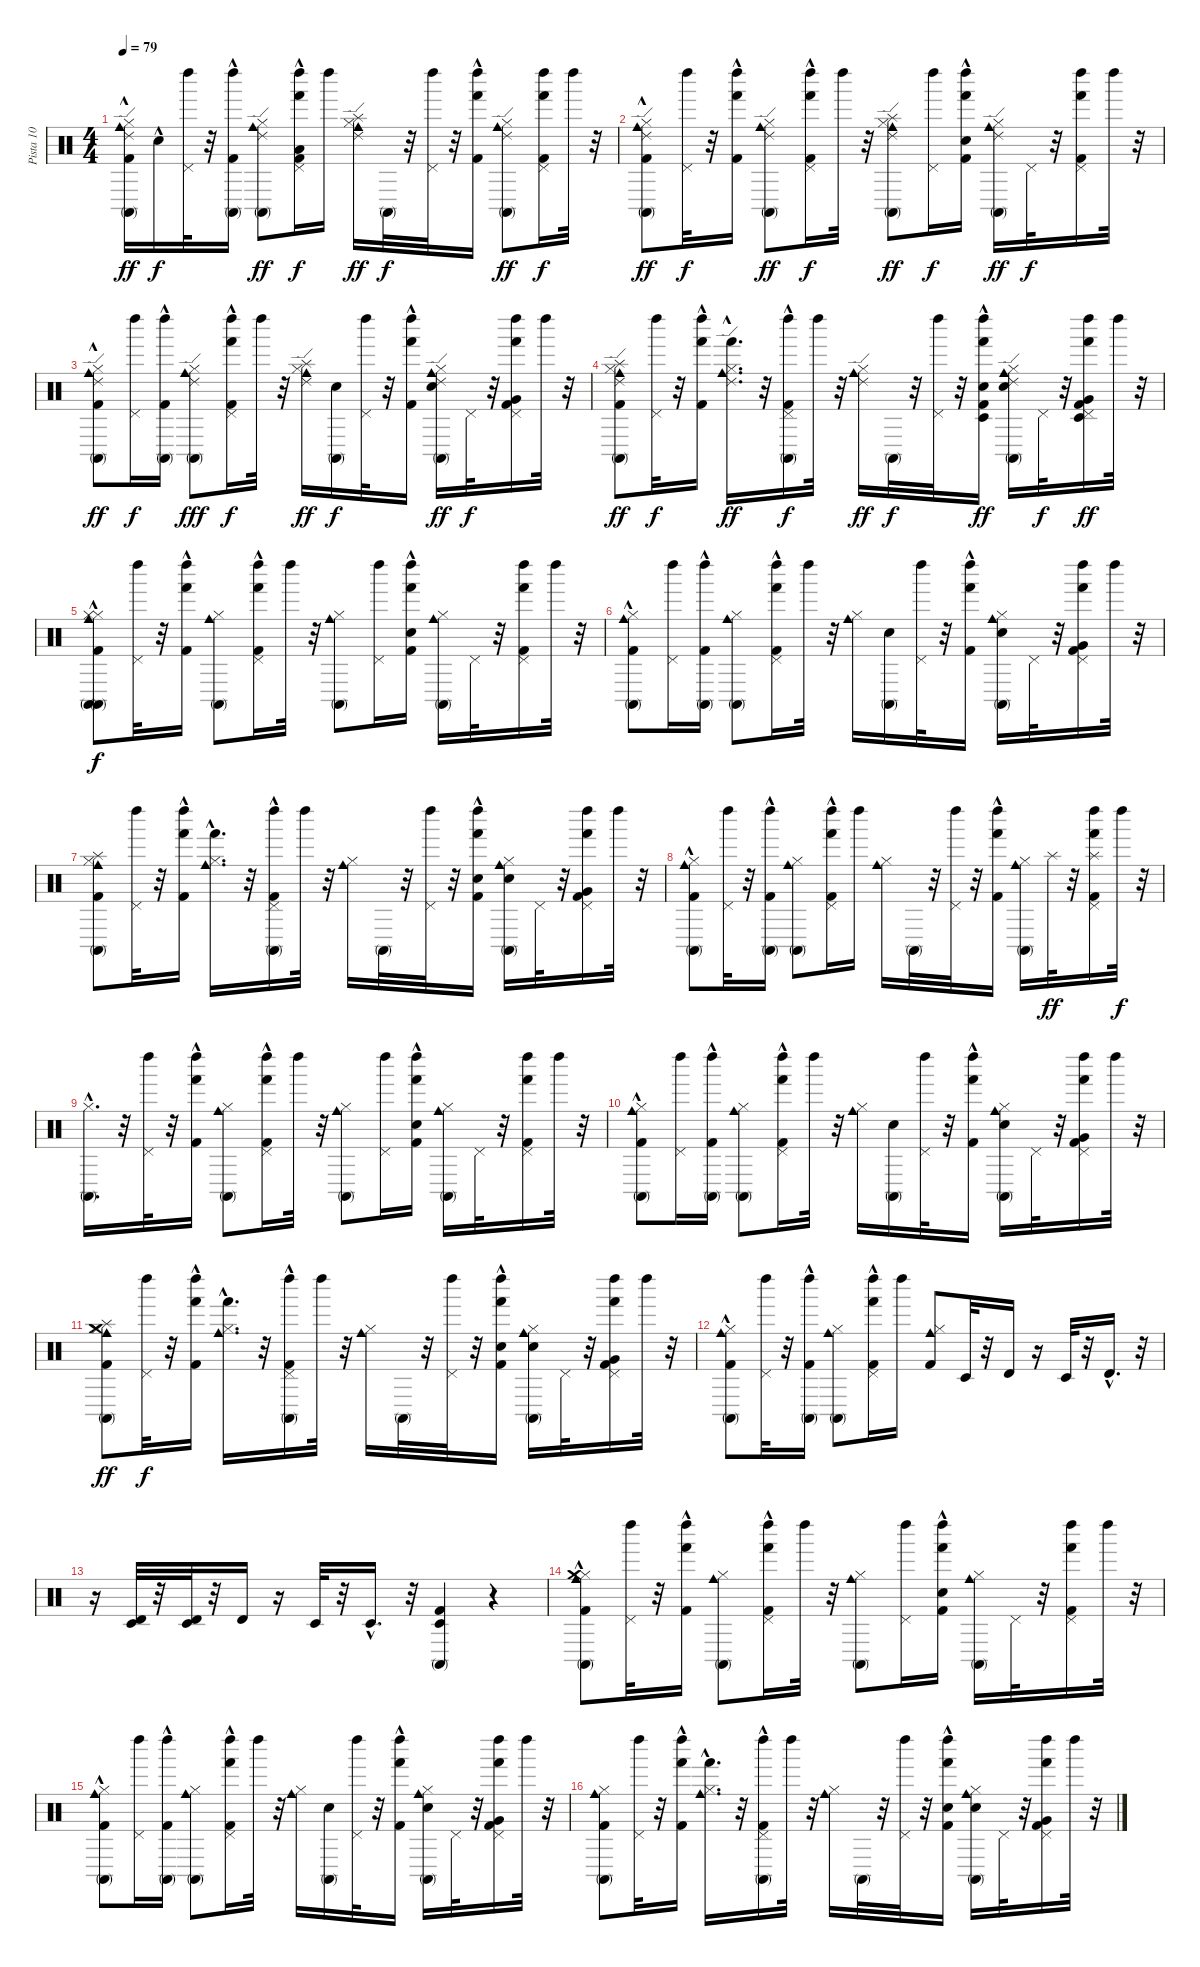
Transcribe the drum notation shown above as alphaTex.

\track ("Pista 10" "Pista 10") {instrument percussion}
\staff {score}
\articulation defaults
\ts (4 4)
\tempo 79
\clef neutral
\ks c
("Ride (edge) 2" "Cowbell medium (hit)" "Kick (hit) 2"{hac} "Hi-Hat (closed)" "Conga high (mute)").16{dy ff} "Snare (hit) 2"{hac}.16{dy f} ("Left Maraca (hit)" "Pedal Hi-Hat (hit)").32 r.32 ("Left Maraca (hit)" "Kick (hit) 2"{hac} "Conga high (mute)").16 ("Ride (edge) 2" "Cowbell medium (hit)" "Hi-Hat (closed)" "Conga high (mute)").8{dy ff} ("Low Floor Tom (hit)"{hac} "Left Maraca (hit)" "Kick (hit) 2"{hac} "Pedal Hi-Hat (hit)" "Hand (hit)").16{dy f} "Left Maraca (hit)".16 ("Ride (edge) 2" "Cowbell medium (hit)" "Hi-Hat (closed)" "Splash (hit)").16{dy ff} "Conga high (mute)".32{dy f} r.32 ("Left Maraca (hit)" "Pedal Hi-Hat (hit)").32 r.32 ("Left Maraca (hit)" "Kick (hit) 2"{hac} "Hand (hit)").16 ("Ride (edge) 2" "Cowbell medium (hit)" "Hi-Hat (closed)" "Conga high (mute)").8{dy ff} ("Left Maraca (hit)" "Kick (hit) 2" "Pedal Hi-Hat (hit)" "Hand (hit)").16{dy f} "Left Maraca (hit)".32 r.32 |
("Ride (edge) 2" "Cowbell medium (hit)" "Hi-Hat (closed)"{hac} "Conga high (mute)" "Kick (hit) 2"{hac}).8{dy ff} ("Left Maraca (hit)" "Pedal Hi-Hat (hit)").32{dy f} r.32 ("Left Maraca (hit)" "Hand (hit)" "Kick (hit) 2"{hac}).16 ("Ride (edge) 2" "Cowbell medium (hit)" "Hi-Hat (closed)" "Conga high (mute)").8{dy ff} ("Left Maraca (hit)" "Pedal Hi-Hat (hit)" "Hand (hit)" "Kick (hit) 2"{hac}).16{dy f} "Left Maraca (hit)".32 r.32 ("Ride (edge) 2" "Splash (hit)" "Cowbell medium (hit)" "Hi-Hat (closed)" "Conga high (mute)").8{dy ff} ("Left Maraca (hit)" "Pedal Hi-Hat (hit)").16{dy f} ("Left Maraca (hit)" "Hand (hit)" "Kick (hit) 2"{hac} "Snare (hit) 2").16 ("Ride (edge) 2" "Cowbell medium (hit)" "Hi-Hat (closed)" "Conga high (mute)").16{dy ff} "Pedal Hi-Hat (hit)".32{dy f} r.32 ("Left Maraca (hit)" "Pedal Hi-Hat (hit)" "Hand (hit)" "Kick (hit) 2").16 "Left Maraca (hit)".32 r.32 |
("Ride (edge) 2" "Cowbell medium (hit)" "Hi-Hat (closed)" "Conga high (mute)" "Kick (hit) 2"{hac}).8{dy ff} ("Left Maraca (hit)" "Pedal Hi-Hat (hit)").16{dy f} ("Left Maraca (hit)" "Conga high (mute)" "Kick (hit) 2"{hac}).16 ("Ride (edge) 2" "Cowbell medium (hit)" "Hi-Hat (closed)" "Conga high (mute)").8{dy fff} ("Left Maraca (hit)" "Pedal Hi-Hat (hit)" "Hand (hit)" "Kick (hit) 2"{hac}).16{dy f} "Left Maraca (hit)".32 r.32 ("Ride (edge) 2" "Splash (hit)" "Cowbell medium (hit)" "Hi-Hat (closed)").16{dy ff} ("Conga high (mute)" "Snare (hit) 2").16{dy f} ("Left Maraca (hit)" "Pedal Hi-Hat (hit)").32 r.32 ("Left Maraca (hit)" "Hand (hit)" "Kick (hit) 2"{hac}).16 ("Ride (edge) 2" "Cowbell medium (hit)" "Hi-Hat (closed)" "Conga high (mute)" "Snare (hit) 2").16{dy ff} "Pedal Hi-Hat (hit)".32{dy f} r.32 ("Left Maraca (hit)" "Pedal Hi-Hat (hit)" "Hand (hit)" "Kick (hit) 2" "Very Low Tom (hit)").16 "Left Maraca (hit)".32 r.32 |
("Ride (edge) 2" "Splash (hit)" "Cowbell medium (hit)" "Hi-Hat (closed)" "Conga high (mute)" "Kick (hit) 2").8{dy ff} ("Left Maraca (hit)" "Pedal Hi-Hat (hit)").32{dy f} r.32 ("Left Maraca (hit)" "Hand (hit)" "Kick (hit) 2"{hac}).16 ("Ride (edge) 2" "Cowbell medium (hit)"{hac} "Hi-Hat (closed)" "Hand (hit)").16{d dy ff} r.32 ("Left Maraca (hit)" "Pedal Hi-Hat (hit)" "Conga high (mute)" "Kick (hit) 2"{hac}).16{dy f} "Left Maraca (hit)".32 r.32 ("Ride (edge) 2" "Cowbell medium (hit)" "Hi-Hat (closed)").16{dy ff} "Conga high (mute)".32{dy f} r.32 ("Left Maraca (hit)" "Pedal Hi-Hat (hit)").32 r.32 ("Left Maraca (hit)" "Hand (hit)" "Kick (hit) 2"{hac} "Snare (hit) 2" "Timbale low (hit)").16{dy ff} ("Ride (edge) 2" "Cowbell medium (hit)" "Hi-Hat (closed)" "Conga high (mute)" "Snare (hit) 2").16 "Pedal Hi-Hat (hit)".32{dy f} r.32 ("Left Maraca (hit)" "Pedal Hi-Hat (hit)" "Hand (hit)" "Kick (hit) 2" "Very Low Tom (hit)" "Timbale low (hit)").16{dy ff} "Left Maraca (hit)".32 r.32 |
("Cowbell medium (hit)" "Hi-Hat (closed)"{hac} "Conga high (mute)" "Kick (hit) 2"{hac} "Hi-Hat (closed)"{hac} "Conga high (mute)").8{dy f} ("Left Maraca (hit)" "Pedal Hi-Hat (hit)").32 r.32 ("Left Maraca (hit)" "Kick (hit) 2"{hac} "Hand (hit)").16 ("Cowbell medium (hit)" "Hi-Hat (closed)" "Conga high (mute)").8 ("Left Maraca (hit)" "Kick (hit) 2"{hac} "Pedal Hi-Hat (hit)" "Hand (hit)").16 "Left Maraca (hit)".32 r.32 ("Cowbell medium (hit)" "Hi-Hat (closed)" "Conga high (mute)").8 ("Left Maraca (hit)" "Pedal Hi-Hat (hit)").16 ("Left Maraca (hit)" "Kick (hit) 2"{hac} "Hand (hit)" "Snare (hit) 2").16 ("Cowbell medium (hit)" "Hi-Hat (closed)" "Conga high (mute)").16 "Pedal Hi-Hat (hit)".32 r.32 ("Left Maraca (hit)" "Kick (hit) 2" "Pedal Hi-Hat (hit)" "Hand (hit)").16 "Left Maraca (hit)".32 r.32 |
("Cowbell medium (hit)" "Kick (hit) 2"{hac} "Hi-Hat (closed)" "Conga high (mute)").8 ("Left Maraca (hit)" "Pedal Hi-Hat (hit)").16 ("Left Maraca (hit)" "Kick (hit) 2"{hac} "Conga high (mute)").16 ("Cowbell medium (hit)" "Hi-Hat (closed)" "Conga high (mute)").8 ("Left Maraca (hit)" "Kick (hit) 2"{hac} "Pedal Hi-Hat (hit)" "Hand (hit)").16 "Left Maraca (hit)".32 r.32 ("Cowbell medium (hit)" "Hi-Hat (closed)").16 ("Conga high (mute)" "Snare (hit) 2").16 ("Left Maraca (hit)" "Pedal Hi-Hat (hit)").32 r.32 ("Left Maraca (hit)" "Kick (hit) 2"{hac} "Hand (hit)").16 ("Cowbell medium (hit)" "Hi-Hat (closed)" "Conga high (mute)" "Snare (hit) 2").16 "Pedal Hi-Hat (hit)".32 r.32 ("Left Maraca (hit)" "Kick (hit) 2" "Pedal Hi-Hat (hit)" "Hand (hit)" "Very Low Tom (hit)").16 "Left Maraca (hit)".32 r.32 |
("Cowbell medium (hit)" "Kick (hit) 2" "Hi-Hat (closed)" "Conga high (mute)" "Splash (hit)").8 ("Left Maraca (hit)" "Pedal Hi-Hat (hit)").32 r.32 ("Left Maraca (hit)" "Kick (hit) 2"{hac} "Hand (hit)").16 ("Cowbell medium (hit)"{hac} "Hi-Hat (closed)" "Hand (hit)").16{d} r.32 ("Left Maraca (hit)" "Kick (hit) 2"{hac} "Pedal Hi-Hat (hit)" "Conga high (mute)").16 "Left Maraca (hit)".32 r.32 ("Cowbell medium (hit)" "Hi-Hat (closed)").16 "Conga high (mute)".32 r.32 ("Left Maraca (hit)" "Pedal Hi-Hat (hit)").32 r.32 ("Left Maraca (hit)" "Kick (hit) 2"{hac} "Hand (hit)" "Snare (hit) 2").16 ("Cowbell medium (hit)" "Hi-Hat (closed)" "Conga high (mute)" "Snare (hit) 2").16 "Pedal Hi-Hat (hit)".32 r.32 ("Left Maraca (hit)" "Kick (hit) 2" "Pedal Hi-Hat (hit)" "Hand (hit)" "Very Low Tom (hit)").16 "Left Maraca (hit)".32 r.32 |
("Cowbell medium (hit)" "Kick (hit) 2"{hac} "Hi-Hat (closed)" "Conga high (mute)").8 ("Left Maraca (hit)" "Pedal Hi-Hat (hit)").32 r.32 ("Left Maraca (hit)" "Kick (hit) 2"{hac} "Conga high (mute)").16 ("Cowbell medium (hit)" "Hi-Hat (closed)" "Conga high (mute)").8 ("Left Maraca (hit)" "Kick (hit) 2"{hac} "Pedal Hi-Hat (hit)" "Hand (hit)").16 "Left Maraca (hit)".16 ("Cowbell medium (hit)" "Hi-Hat (closed)").16 "Conga high (mute)".32 r.32 ("Left Maraca (hit)" "Pedal Hi-Hat (hit)").32 r.32 ("Left Maraca (hit)" "Kick (hit) 2"{hac} "Hand (hit)").16 ("Cowbell medium (hit)" "Hi-Hat (closed)" "Conga high (mute)").16 "Splash (hit)".32{dy ff} r.32 ("Left Maraca (hit)" "Kick (hit) 2" "Pedal Hi-Hat (hit)" "Hand (hit)" "Splash (hit)").16 "Left Maraca (hit)".32{dy f} r.32 |
("Hi-Hat (closed)"{hac} "Conga high (mute)").16{d} r.32 ("Left Maraca (hit)" "Pedal Hi-Hat (hit)").32 r.32 ("Left Maraca (hit)" "Kick (hit) 2"{hac} "Hand (hit)").16 ("Cowbell medium (hit)" "Hi-Hat (closed)" "Conga high (mute)").8 ("Left Maraca (hit)" "Kick (hit) 2"{hac} "Pedal Hi-Hat (hit)" "Hand (hit)").16 "Left Maraca (hit)".32 r.32 ("Cowbell medium (hit)" "Hi-Hat (closed)" "Conga high (mute)").8 ("Left Maraca (hit)" "Pedal Hi-Hat (hit)").16 ("Left Maraca (hit)" "Kick (hit) 2"{hac} "Hand (hit)" "Snare (hit) 2").16 ("Cowbell medium (hit)" "Hi-Hat (closed)" "Conga high (mute)").16 "Pedal Hi-Hat (hit)".32 r.32 ("Left Maraca (hit)" "Kick (hit) 2" "Pedal Hi-Hat (hit)" "Hand (hit)").16 "Left Maraca (hit)".32 r.32 |
("Cowbell medium (hit)" "Kick (hit) 2"{hac} "Hi-Hat (closed)" "Conga high (mute)").8 ("Left Maraca (hit)" "Pedal Hi-Hat (hit)").16 ("Left Maraca (hit)" "Kick (hit) 2"{hac} "Conga high (mute)").16 ("Cowbell medium (hit)" "Hi-Hat (closed)" "Conga high (mute)").8 ("Left Maraca (hit)" "Kick (hit) 2"{hac} "Pedal Hi-Hat (hit)" "Hand (hit)").16 "Left Maraca (hit)".32 r.32 ("Cowbell medium (hit)" "Hi-Hat (closed)").16 ("Conga high (mute)" "Snare (hit) 2").16 ("Left Maraca (hit)" "Pedal Hi-Hat (hit)").32 r.32 ("Left Maraca (hit)" "Kick (hit) 2"{hac} "Hand (hit)").16 ("Cowbell medium (hit)" "Hi-Hat (closed)" "Conga high (mute)" "Snare (hit) 2").16 "Pedal Hi-Hat (hit)".32 r.32 ("Left Maraca (hit)" "Kick (hit) 2" "Pedal Hi-Hat (hit)" "Hand (hit)" "Very Low Tom (hit)").16 "Left Maraca (hit)".32 r.32 |
("Crash medium (hit)" "Splash (hit)" "Cowbell medium (hit)" "Kick (hit) 2" "Hi-Hat (closed)" "Conga high (mute)").8{dy ff} ("Left Maraca (hit)" "Pedal Hi-Hat (hit)").32{dy f} r.32 ("Left Maraca (hit)" "Kick (hit) 2"{hac} "Hand (hit)").16 ("Cowbell medium (hit)"{hac} "Hi-Hat (closed)" "Hand (hit)").16{d} r.32 ("Left Maraca (hit)" "Kick (hit) 2"{hac} "Pedal Hi-Hat (hit)" "Conga high (mute)").16 "Left Maraca (hit)".32 r.32 ("Cowbell medium (hit)" "Hi-Hat (closed)").16 "Conga high (mute)".32 r.32 ("Left Maraca (hit)" "Pedal Hi-Hat (hit)").32 r.32 ("Left Maraca (hit)" "Kick (hit) 2"{hac} "Hand (hit)" "Snare (hit) 2").16 ("Cowbell medium (hit)" "Hi-Hat (closed)" "Conga high (mute)" "Snare (hit) 2").16 "Pedal Hi-Hat (hit)".32 r.32 ("Left Maraca (hit)" "Kick (hit) 2" "Pedal Hi-Hat (hit)" "Hand (hit)" "Very Low Tom (hit)").16 "Left Maraca (hit)".32 r.32 |
("Cowbell medium (hit)" "Kick (hit) 2"{hac} "Hi-Hat (closed)" "Conga high (mute)").8 ("Left Maraca (hit)" "Pedal Hi-Hat (hit)").32 r.32 ("Left Maraca (hit)" "Kick (hit) 2"{hac} "Conga high (mute)").16 ("Cowbell medium (hit)" "Hi-Hat (closed)" "Conga high (mute)").8 ("Left Maraca (hit)" "Kick (hit) 2"{hac} "Pedal Hi-Hat (hit)" "Hand (hit)").16 "Left Maraca (hit)".16 ("Cowbell medium (hit)" "Kick (hit) 2" "Hi-Hat (closed)").8 "Timbale low (hit)".32 r.32 "Timbale high (hit)".16 r.16 "Timbale low (hit)".32 r.32 "Timbale high (hit)"{hac}.16{d} r.32 |
r.16 ("Timbale high (hit)" "Timbale low (hit)").32 r.32 ("Timbale high (hit)" "Timbale low (hit)").32 r.32 "Timbale high (hit)".16 r.16 "Timbale low (hit)".32 r.32 "Timbale low (hit)"{hac}.16{d} r.32 ("Kick (hit) 2" "Conga high (mute)" "Timbale low (hit)").4 r.4 |
("Cowbell medium (hit)" "Kick (hit) 2"{hac} "Hi-Hat (closed)"{hac} "Conga high (mute)" "Crash medium (hit)").8 ("Left Maraca (hit)" "Pedal Hi-Hat (hit)").32 r.32 ("Left Maraca (hit)" "Kick (hit) 2"{hac} "Hand (hit)").16 ("Cowbell medium (hit)" "Hi-Hat (closed)" "Conga high (mute)").8 ("Left Maraca (hit)" "Kick (hit) 2"{hac} "Pedal Hi-Hat (hit)" "Hand (hit)").16 "Left Maraca (hit)".32 r.32 ("Cowbell medium (hit)" "Hi-Hat (closed)" "Conga high (mute)").8 ("Left Maraca (hit)" "Pedal Hi-Hat (hit)").16 ("Left Maraca (hit)" "Kick (hit) 2"{hac} "Hand (hit)" "Snare (hit) 2").16 ("Cowbell medium (hit)" "Hi-Hat (closed)" "Conga high (mute)").16 "Pedal Hi-Hat (hit)".32 r.32 ("Left Maraca (hit)" "Kick (hit) 2" "Pedal Hi-Hat (hit)" "Hand (hit)").16 "Left Maraca (hit)".32 r.32 |
("Cowbell medium (hit)" "Kick (hit) 2"{hac} "Hi-Hat (closed)" "Conga high (mute)").8 ("Left Maraca (hit)" "Pedal Hi-Hat (hit)").16 ("Left Maraca (hit)" "Kick (hit) 2"{hac} "Conga high (mute)").16 ("Cowbell medium (hit)" "Hi-Hat (closed)" "Conga high (mute)").8 ("Left Maraca (hit)" "Kick (hit) 2"{hac} "Pedal Hi-Hat (hit)" "Hand (hit)").16 "Left Maraca (hit)".32 r.32 ("Cowbell medium (hit)" "Hi-Hat (closed)").16 ("Conga high (mute)" "Snare (hit) 2").16 ("Left Maraca (hit)" "Pedal Hi-Hat (hit)").32 r.32 ("Left Maraca (hit)" "Kick (hit) 2"{hac} "Hand (hit)").16 ("Cowbell medium (hit)" "Hi-Hat (closed)" "Conga high (mute)" "Snare (hit) 2").16 "Pedal Hi-Hat (hit)".32 r.32 ("Left Maraca (hit)" "Kick (hit) 2" "Pedal Hi-Hat (hit)" "Hand (hit)" "Very Low Tom (hit)").16 "Left Maraca (hit)".32 r.32 |
("Cowbell medium (hit)" "Kick (hit) 2" "Hi-Hat (closed)" "Conga high (mute)").8 ("Left Maraca (hit)" "Pedal Hi-Hat (hit)").32 r.32 ("Left Maraca (hit)" "Kick (hit) 2"{hac} "Hand (hit)").16 ("Cowbell medium (hit)"{hac} "Hi-Hat (closed)" "Hand (hit)").16{d} r.32 ("Left Maraca (hit)" "Kick (hit) 2"{hac} "Pedal Hi-Hat (hit)" "Conga high (mute)").16 "Left Maraca (hit)".32 r.32 ("Cowbell medium (hit)" "Hi-Hat (closed)").16 "Conga high (mute)".32 r.32 ("Left Maraca (hit)" "Pedal Hi-Hat (hit)").32 r.32 ("Left Maraca (hit)" "Kick (hit) 2"{hac} "Hand (hit)" "Snare (hit) 2").16 ("Cowbell medium (hit)" "Hi-Hat (closed)" "Conga high (mute)" "Snare (hit) 2").16 "Pedal Hi-Hat (hit)".32 r.32 ("Left Maraca (hit)" "Kick (hit) 2" "Pedal Hi-Hat (hit)" "Hand (hit)" "Very Low Tom (hit)").16 "Left Maraca (hit)".32 r.32
